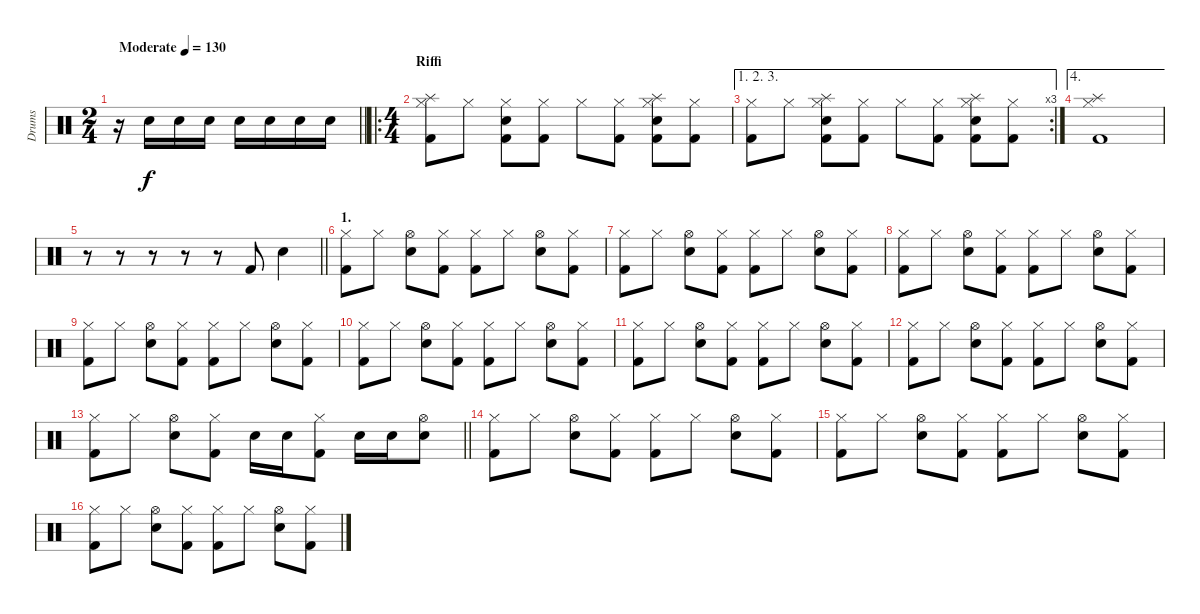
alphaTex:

\track ("Drums" "Drums") {instrument percussion}
\staff {score}
\articulation defaults
\ts (2 4)
\tempo (130 "Moderate")
\clef neutral
\barLineRight lightlight
\ks c
r.16{dy f} "Electric Snare (hit)".16 "Electric Snare (hit)".16 "Electric Snare (hit)".16 "Electric Snare (hit)".16 "Electric Snare (hit)".16 "Electric Snare (hit)".16 "Electric Snare (hit)".16 |
\ro
\ts (4 4)
\section ("" "Riffi")
("Splash (hit)" "Kick (hit) 2" "Hi-Hat (closed)").8 "Hi-Hat (closed)".8 ("Electric Snare (hit)" "Kick (hit) 2" "Hi-Hat (closed)").8 ("Kick (hit) 2" "Hi-Hat (closed)").8 "Hi-Hat (closed)".8 ("Kick (hit) 2" "Hi-Hat (closed)").8 ("Splash (hit)" "Electric Snare (hit)" "Kick (hit) 2" "Hi-Hat (closed)").8 ("Kick (hit) 2" "Hi-Hat (closed)").8 |
\ae (1 2 3)
\rc 3
("Kick (hit) 2" "Hi-Hat (closed)").8 "Hi-Hat (closed)".8 ("Splash (hit)" "Electric Snare (hit)" "Kick (hit) 2" "Hi-Hat (closed)").8 ("Kick (hit) 2" "Hi-Hat (closed)").8 "Hi-Hat (closed)".8 ("Kick (hit) 2" "Hi-Hat (closed)").8 ("Splash (hit)" "Electric Snare (hit)" "Kick (hit) 2" "Hi-Hat (closed)").8 ("Kick (hit) 2" "Hi-Hat (closed)").8 |
\ae 4
("Splash (hit)" "Kick (hit) 2" "Hi-Hat (closed)").1 |
\barLineRight lightlight
r.8 r.8 r.8 r.8 r.8 "Kick (hit) 2".8 "Electric Snare (hit)".4 |
\section ("" "1.")
("Kick (hit) 2" "Hi-Hat (closed)").8 "Hi-Hat (closed)".8 ("Electric Snare (hit)" "Hi-Hat (open)").8 ("Kick (hit) 2" "Hi-Hat (closed)").8 ("Kick (hit) 2" "Hi-Hat (closed)").8 "Hi-Hat (closed)".8 ("Electric Snare (hit)" "Hi-Hat (open)").8 ("Kick (hit) 2" "Hi-Hat (closed)").8 |
("Kick (hit) 2" "Hi-Hat (closed)").8 "Hi-Hat (closed)".8 ("Electric Snare (hit)" "Hi-Hat (open)").8 ("Kick (hit) 2" "Hi-Hat (closed)").8 ("Kick (hit) 2" "Hi-Hat (closed)").8 "Hi-Hat (closed)".8 ("Electric Snare (hit)" "Hi-Hat (open)").8 ("Kick (hit) 2" "Hi-Hat (closed)").8 |
("Kick (hit) 2" "Hi-Hat (closed)").8 "Hi-Hat (closed)".8 ("Electric Snare (hit)" "Hi-Hat (open)").8 ("Kick (hit) 2" "Hi-Hat (closed)").8 ("Kick (hit) 2" "Hi-Hat (closed)").8 "Hi-Hat (closed)".8 ("Electric Snare (hit)" "Hi-Hat (open)").8 ("Kick (hit) 2" "Hi-Hat (closed)").8 |
("Kick (hit) 2" "Hi-Hat (closed)").8 "Hi-Hat (closed)".8 ("Electric Snare (hit)" "Hi-Hat (open)").8 ("Kick (hit) 2" "Hi-Hat (closed)").8 ("Kick (hit) 2" "Hi-Hat (closed)").8 "Hi-Hat (closed)".8 ("Electric Snare (hit)" "Hi-Hat (open)").8 ("Kick (hit) 2" "Hi-Hat (closed)").8 |
("Kick (hit) 2" "Hi-Hat (closed)").8 "Hi-Hat (closed)".8 ("Electric Snare (hit)" "Hi-Hat (open)").8 ("Kick (hit) 2" "Hi-Hat (closed)").8 ("Kick (hit) 2" "Hi-Hat (closed)").8 "Hi-Hat (closed)".8 ("Electric Snare (hit)" "Hi-Hat (open)").8 ("Kick (hit) 2" "Hi-Hat (closed)").8 |
("Kick (hit) 2" "Hi-Hat (closed)").8 "Hi-Hat (closed)".8 ("Electric Snare (hit)" "Hi-Hat (open)").8 ("Kick (hit) 2" "Hi-Hat (closed)").8 ("Kick (hit) 2" "Hi-Hat (closed)").8 "Hi-Hat (closed)".8 ("Electric Snare (hit)" "Hi-Hat (open)").8 ("Kick (hit) 2" "Hi-Hat (closed)").8 |
("Kick (hit) 2" "Hi-Hat (closed)").8 "Hi-Hat (closed)".8 ("Electric Snare (hit)" "Hi-Hat (open)").8 ("Kick (hit) 2" "Hi-Hat (closed)").8 ("Kick (hit) 2" "Hi-Hat (closed)").8 "Hi-Hat (closed)".8 ("Electric Snare (hit)" "Hi-Hat (open)").8 ("Kick (hit) 2" "Hi-Hat (closed)").8 |
\barLineRight lightlight
("Kick (hit) 2" "Hi-Hat (closed)").8 "Hi-Hat (closed)".8 ("Electric Snare (hit)" "Hi-Hat (open)").8 ("Kick (hit) 2" "Hi-Hat (closed)").8 "Electric Snare (hit)".16 "Electric Snare (hit)".16 ("Kick (hit) 2" "Hi-Hat (closed)").8 "Electric Snare (hit)".16 "Electric Snare (hit)".16 ("Electric Snare (hit)" "Hi-Hat (open)").8 |
("Kick (hit) 2" "Hi-Hat (closed)").8 "Hi-Hat (closed)".8 ("Electric Snare (hit)" "Hi-Hat (open)").8 ("Kick (hit) 2" "Hi-Hat (closed)").8 ("Kick (hit) 2" "Hi-Hat (closed)").8 "Hi-Hat (closed)".8 ("Electric Snare (hit)" "Hi-Hat (open)").8 ("Kick (hit) 2" "Hi-Hat (closed)").8 |
("Kick (hit) 2" "Hi-Hat (closed)").8 "Hi-Hat (closed)".8 ("Electric Snare (hit)" "Hi-Hat (open)").8 ("Kick (hit) 2" "Hi-Hat (closed)").8 ("Kick (hit) 2" "Hi-Hat (closed)").8 "Hi-Hat (closed)".8 ("Electric Snare (hit)" "Hi-Hat (open)").8 ("Kick (hit) 2" "Hi-Hat (closed)").8 |
("Kick (hit) 2" "Hi-Hat (closed)").8 "Hi-Hat (closed)".8 ("Electric Snare (hit)" "Hi-Hat (open)").8 ("Kick (hit) 2" "Hi-Hat (closed)").8 ("Kick (hit) 2" "Hi-Hat (closed)").8 "Hi-Hat (closed)".8 ("Electric Snare (hit)" "Hi-Hat (open)").8 ("Kick (hit) 2" "Hi-Hat (closed)").8
